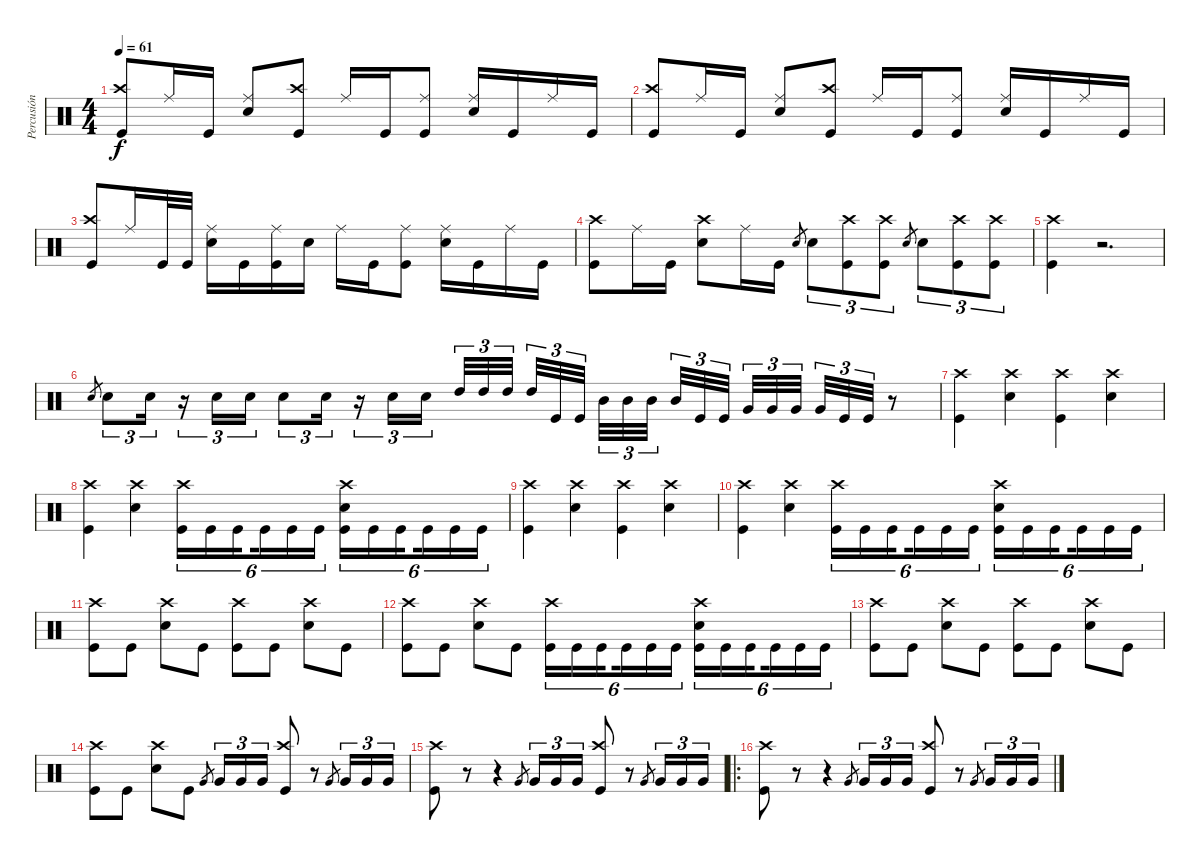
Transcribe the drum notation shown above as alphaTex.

\track ("Percusión" "Percusión") {instrument percussion}
\staff {score}
\articulation defaults
\ts (4 4)
\tempo 61
\clef neutral
\ks c
("Crash high (hit)" "Kick (hit)").8{dy f beam Up} "Ride (middle)".16{beam Up} "Kick (hit)".16{beam Up} ("Ride (middle)" "Snare (hit) 2").8{beam Up} ("Crash high (hit)" "Kick (hit)").8{beam Up} "Ride (middle)".16{beam Up} "Kick (hit)".16{beam Up} ("Ride (middle)" "Kick (hit)").8{beam Up} ("Ride (middle)" "Snare (hit) 2").16{beam Up} "Kick (hit)".16{beam Up} "Ride (middle)".16{beam Up} "Kick (hit)".16{beam Up} |
("Crash high (hit)" "Kick (hit)").8{beam Up} "Ride (middle)".16{beam Up} "Kick (hit)".16{beam Up} ("Ride (middle)" "Snare (hit) 2").8{beam Up} ("Crash high (hit)" "Kick (hit)").8{beam Up} "Ride (middle)".16{beam Up} "Kick (hit)".16{beam Up} ("Ride (middle)" "Kick (hit)").8{beam Up} ("Ride (middle)" "Snare (hit) 2").16{beam Up} "Kick (hit)".16{beam Up} "Ride (middle)".16{beam Up} "Kick (hit)".16{beam Up} |
("Crash high (hit)" "Kick (hit)").8{beam Up} "Ride (middle)".16{beam Up} "Kick (hit)".32{beam Up} "Kick (hit)".32 ("Ride (middle)" "Snare (hit) 2").16 "Kick (hit)".16 ("Kick (hit)" "Ride (middle)").16 "Snare (hit) 2".16 "Ride (middle)".16 "Kick (hit)".16 ("Ride (middle)" "Kick (hit)").8 ("Ride (middle)" "Snare (hit) 2").16 "Kick (hit)".16 "Ride (middle)".16 "Kick (hit)".16 |
("Crash high (hit)" "Kick (hit)").8 "Ride (middle)".16 "Kick (hit)".16 ("Crash high (hit)" "Snare (hit) 2").8 "Ride (middle)".16 "Kick (hit)".16 "Snare (hit) 2".8{gr} "Snare (hit) 2".8{tu (3 2)} ("Crash high (hit)" "Kick (hit)").8{tu (3 2)} ("Crash high (hit)" "Kick (hit)").8{tu (3 2)} "Snare (hit) 2".8{gr} "Snare (hit) 2".8{tu (3 2)} ("Crash high (hit)" "Kick (hit)").8{tu (3 2)} ("Crash high (hit)" "Kick (hit)").8{tu (3 2)} |
("Crash high (hit)" "Kick (hit)").4 r.2{d} |
"Snare (hit) 2".8{gr} "Snare (hit) 2".8{tu (3 2)} "Snare (hit) 2".16{tu (3 2)} r.16{tu (3 2)} "Snare (hit) 2".16{tu (3 2)} "Snare (hit) 2".16{tu (3 2)} "Snare (hit) 2".8{tu (3 2)} "Snare (hit) 2".16{tu (3 2)} r.16{tu (3 2)} "Snare (hit) 2".16{tu (3 2)} "Snare (hit) 2".16{tu (3 2)} "High Tom (hit)".32{tu (3 2) beam Up} "High Tom (hit)".32{tu (3 2) beam Up} "High Tom (hit)".32{tu (3 2) beam splitsecondary} "High Tom (hit)".32{tu (3 2)} "Kick (hit)".32{tu (3 2)} "Kick (hit)".32{tu (3 2) beam splitsecondary} "Mid Tom (hit)".32{tu (3 2)} "Mid Tom (hit)".32{tu (3 2)} "Mid Tom (hit)".32{tu (3 2) beam splitsecondary} "Mid Tom (hit)".32{tu (3 2)} "Kick (hit)".32{tu (3 2)} "Kick (hit)".32{tu (3 2)} "Very Low Tom (hit)".32{tu (3 2)} "Very Low Tom (hit)".32{tu (3 2)} "Very Low Tom (hit)".32{tu (3 2) beam splitsecondary} "Very Low Tom (hit)".32{tu (3 2)} "Kick (hit)".32{tu (3 2)} "Kick (hit)".32{tu (3 2)} r.8 |
("Crash high (hit)" "Kick (hit)").4 ("Crash high (hit)" "Snare (hit) 2").4 ("Crash high (hit)" "Kick (hit)").4 ("Crash high (hit)" "Snare (hit) 2").4 |
("Crash high (hit)" "Kick (hit)").4 ("Crash high (hit)" "Snare (hit) 2").4 ("Crash high (hit)" "Kick (hit)").16{tu (6 4)} "Kick (hit)".16{tu (6 4)} "Kick (hit)".16{tu (6 4) beam splitsecondary} "Kick (hit)".16{tu (6 4)} "Kick (hit)".16{tu (6 4)} "Kick (hit)".16{tu (6 4)} ("Crash high (hit)" "Snare (hit) 2" "Kick (hit)").16{tu (6 4)} "Kick (hit)".16{tu (6 4)} "Kick (hit)".16{tu (6 4) beam splitsecondary} "Kick (hit)".16{tu (6 4)} "Kick (hit)".16{tu (6 4)} "Kick (hit)".16{tu (6 4)} |
("Crash high (hit)" "Kick (hit)").4 ("Crash high (hit)" "Snare (hit) 2").4 ("Crash high (hit)" "Kick (hit)").4 ("Crash high (hit)" "Snare (hit) 2").4 |
("Crash high (hit)" "Kick (hit)").4 ("Crash high (hit)" "Snare (hit) 2").4 ("Crash high (hit)" "Kick (hit)").16{tu (6 4)} "Kick (hit)".16{tu (6 4)} "Kick (hit)".16{tu (6 4) beam splitsecondary} "Kick (hit)".16{tu (6 4)} "Kick (hit)".16{tu (6 4)} "Kick (hit)".16{tu (6 4)} ("Crash high (hit)" "Snare (hit) 2" "Kick (hit)").16{tu (6 4)} "Kick (hit)".16{tu (6 4)} "Kick (hit)".16{tu (6 4) beam splitsecondary} "Kick (hit)".16{tu (6 4)} "Kick (hit)".16{tu (6 4)} "Kick (hit)".16{tu (6 4)} |
("Crash high (hit)" "Kick (hit)").8 "Kick (hit)".8 ("Crash high (hit)" "Snare (hit) 2").8 "Kick (hit)".8 ("Crash high (hit)" "Kick (hit)").8 "Kick (hit)".8 ("Crash high (hit)" "Snare (hit) 2").8 "Kick (hit)".8 |
("Crash high (hit)" "Kick (hit)").8 "Kick (hit)".8 ("Crash high (hit)" "Snare (hit) 2").8 "Kick (hit)".8 ("Crash high (hit)" "Kick (hit)").16{tu (6 4)} "Kick (hit)".16{tu (6 4)} "Kick (hit)".16{tu (6 4) beam splitsecondary} "Kick (hit)".16{tu (6 4)} "Kick (hit)".16{tu (6 4)} "Kick (hit)".16{tu (6 4)} ("Crash high (hit)" "Snare (hit) 2" "Kick (hit)").16{tu (6 4)} "Kick (hit)".16{tu (6 4)} "Kick (hit)".16{tu (6 4) beam splitsecondary} "Kick (hit)".16{tu (6 4)} "Kick (hit)".16{tu (6 4)} "Kick (hit)".16{tu (6 4)} |
("Crash high (hit)" "Kick (hit)").8 "Kick (hit)".8 ("Crash high (hit)" "Snare (hit) 2").8 "Kick (hit)".8 ("Crash high (hit)" "Kick (hit)").8 "Kick (hit)".8 ("Crash high (hit)" "Snare (hit) 2").8 "Kick (hit)".8 |
("Crash high (hit)" "Kick (hit)").8 "Kick (hit)".8 ("Crash high (hit)" "Snare (hit) 2").8 "Kick (hit)".8 "Very Low Tom (hit)".8{gr} "Very Low Tom (hit)".16{tu (3 2) beam Up beam merge} "Very Low Tom (hit)".16{tu (3 2) beam Up beam merge} "Very Low Tom (hit)".16{tu (3 2) beam Up beam split} ("Kick (hit)" "Crash high (hit)").8{beam Up} r.8 "Very Low Tom (hit)".8{gr} "Very Low Tom (hit)".16{tu (3 2)} "Very Low Tom (hit)".16{tu (3 2)} "Very Low Tom (hit)".16{tu (3 2)} |
("Crash high (hit)" "Kick (hit)").8 r.8 r.4 "Very Low Tom (hit)".8{gr} "Very Low Tom (hit)".16{tu (3 2) beam Up beam merge} "Very Low Tom (hit)".16{tu (3 2) beam Up beam merge} "Very Low Tom (hit)".16{tu (3 2) beam Up beam split} ("Kick (hit)" "Crash high (hit)").8{beam Up} r.8 "Very Low Tom (hit)".8{gr} "Very Low Tom (hit)".16{tu (3 2)} "Very Low Tom (hit)".16{tu (3 2)} "Very Low Tom (hit)".16{tu (3 2)} |
\ro
("Crash high (hit)" "Kick (hit)").8 r.8 r.4 "Very Low Tom (hit)".8{gr} "Very Low Tom (hit)".16{tu (3 2) beam Up beam merge} "Very Low Tom (hit)".16{tu (3 2) beam Up beam merge} "Very Low Tom (hit)".16{tu (3 2) beam Up beam split} ("Kick (hit)" "Crash high (hit)").8{beam Up} r.8 "Very Low Tom (hit)".8{gr} "Very Low Tom (hit)".16{tu (3 2)} "Very Low Tom (hit)".16{tu (3 2)} "Very Low Tom (hit)".16{tu (3 2)}
